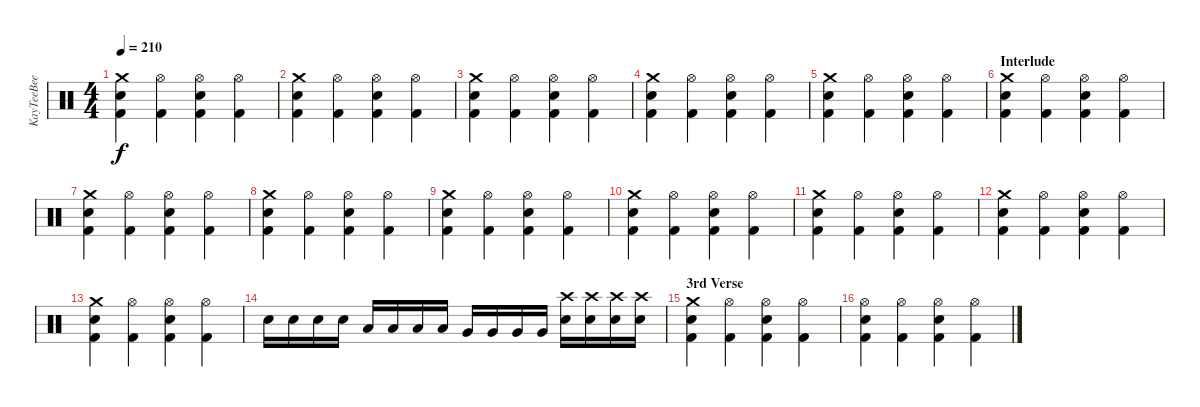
\track ("KayTeeBee" "KayTeeBee") {instrument percussion}
\staff {score}
\articulation defaults
\ts (4 4)
\tempo 210
\clef neutral
\ks c
("Crash medium (hit)" "Electric Snare (hit)" "Kick (hit) 2").4{dy f} ("Hi-Hat (open)" "Kick (hit) 2").4 ("Hi-Hat (open)" "Electric Snare (hit)" "Kick (hit) 2").4 ("Hi-Hat (open)" "Kick (hit) 2").4 |
("Crash medium (hit)" "Electric Snare (hit)" "Kick (hit) 2").4 ("Hi-Hat (open)" "Kick (hit) 2").4 ("Hi-Hat (open)" "Electric Snare (hit)" "Kick (hit) 2").4 ("Hi-Hat (open)" "Kick (hit) 2").4 |
("Crash medium (hit)" "Electric Snare (hit)" "Kick (hit) 2").4 ("Hi-Hat (open)" "Kick (hit) 2").4 ("Hi-Hat (open)" "Electric Snare (hit)" "Kick (hit) 2").4 ("Hi-Hat (open)" "Kick (hit) 2").4 |
("Crash medium (hit)" "Electric Snare (hit)" "Kick (hit) 2").4 ("Hi-Hat (open)" "Kick (hit) 2").4 ("Hi-Hat (open)" "Electric Snare (hit)" "Kick (hit) 2").4 ("Hi-Hat (open)" "Kick (hit) 2").4 |
("Crash medium (hit)" "Electric Snare (hit)" "Kick (hit) 2").4 ("Hi-Hat (open)" "Kick (hit) 2").4 ("Hi-Hat (open)" "Electric Snare (hit)" "Kick (hit) 2").4 ("Hi-Hat (open)" "Kick (hit) 2").4 |
\section ("" "Interlude")
("Crash medium (hit)" "Electric Snare (hit)" "Kick (hit) 2").4 ("Hi-Hat (open)" "Kick (hit) 2").4 ("Hi-Hat (open)" "Electric Snare (hit)" "Kick (hit) 2").4 ("Hi-Hat (open)" "Kick (hit) 2").4 |
("Crash medium (hit)" "Electric Snare (hit)" "Kick (hit) 2").4 ("Hi-Hat (open)" "Kick (hit) 2").4 ("Hi-Hat (open)" "Electric Snare (hit)" "Kick (hit) 2").4 ("Hi-Hat (open)" "Kick (hit) 2").4 |
("Crash medium (hit)" "Electric Snare (hit)" "Kick (hit) 2").4 ("Hi-Hat (open)" "Kick (hit) 2").4 ("Hi-Hat (open)" "Electric Snare (hit)" "Kick (hit) 2").4 ("Hi-Hat (open)" "Kick (hit) 2").4 |
("Crash medium (hit)" "Electric Snare (hit)" "Kick (hit) 2").4 ("Hi-Hat (open)" "Kick (hit) 2").4 ("Hi-Hat (open)" "Electric Snare (hit)" "Kick (hit) 2").4 ("Hi-Hat (open)" "Kick (hit) 2").4 |
("Crash medium (hit)" "Electric Snare (hit)" "Kick (hit) 2").4 ("Hi-Hat (open)" "Kick (hit) 2").4 ("Hi-Hat (open)" "Electric Snare (hit)" "Kick (hit) 2").4 ("Hi-Hat (open)" "Kick (hit) 2").4 |
("Crash medium (hit)" "Electric Snare (hit)" "Kick (hit) 2").4 ("Hi-Hat (open)" "Kick (hit) 2").4 ("Hi-Hat (open)" "Electric Snare (hit)" "Kick (hit) 2").4 ("Hi-Hat (open)" "Kick (hit) 2").4 |
("Crash medium (hit)" "Electric Snare (hit)" "Kick (hit) 2").4 ("Hi-Hat (open)" "Kick (hit) 2").4 ("Hi-Hat (open)" "Electric Snare (hit)" "Kick (hit) 2").4 ("Hi-Hat (open)" "Kick (hit) 2").4 |
("Crash medium (hit)" "Electric Snare (hit)" "Kick (hit) 2").4 ("Hi-Hat (open)" "Kick (hit) 2").4 ("Hi-Hat (open)" "Electric Snare (hit)" "Kick (hit) 2").4 ("Hi-Hat (open)" "Kick (hit) 2").4 |
"Electric Snare (hit)".16 "Electric Snare (hit)".16 "Electric Snare (hit)".16 "Electric Snare (hit)".16 "Low Tom (hit)".16 "Low Tom (hit)".16 "Low Tom (hit)".16 "Low Tom (hit)".16 "Very Low Tom (hit)".16 "Very Low Tom (hit)".16 "Very Low Tom (hit)".16 "Very Low Tom (hit)".16 ("Electric Snare (hit)" "Crash high (hit)").16 ("Electric Snare (hit)" "Crash high (hit)").16 ("Electric Snare (hit)" "Crash high (hit)").16 ("Electric Snare (hit)" "Crash high (hit)").16 |
\section ("" "3rd Verse")
("Crash medium (hit)" "Electric Snare (hit)" "Kick (hit) 2").4 ("Hi-Hat (open)" "Kick (hit) 2").4 ("Hi-Hat (open)" "Electric Snare (hit)" "Kick (hit) 2").4 ("Hi-Hat (open)" "Kick (hit) 2").4 |
("Hi-Hat (open)" "Electric Snare (hit)" "Kick (hit) 2").4 ("Hi-Hat (open)" "Kick (hit) 2").4 ("Hi-Hat (open)" "Electric Snare (hit)" "Kick (hit) 2").4 ("Hi-Hat (open)" "Kick (hit) 2").4
